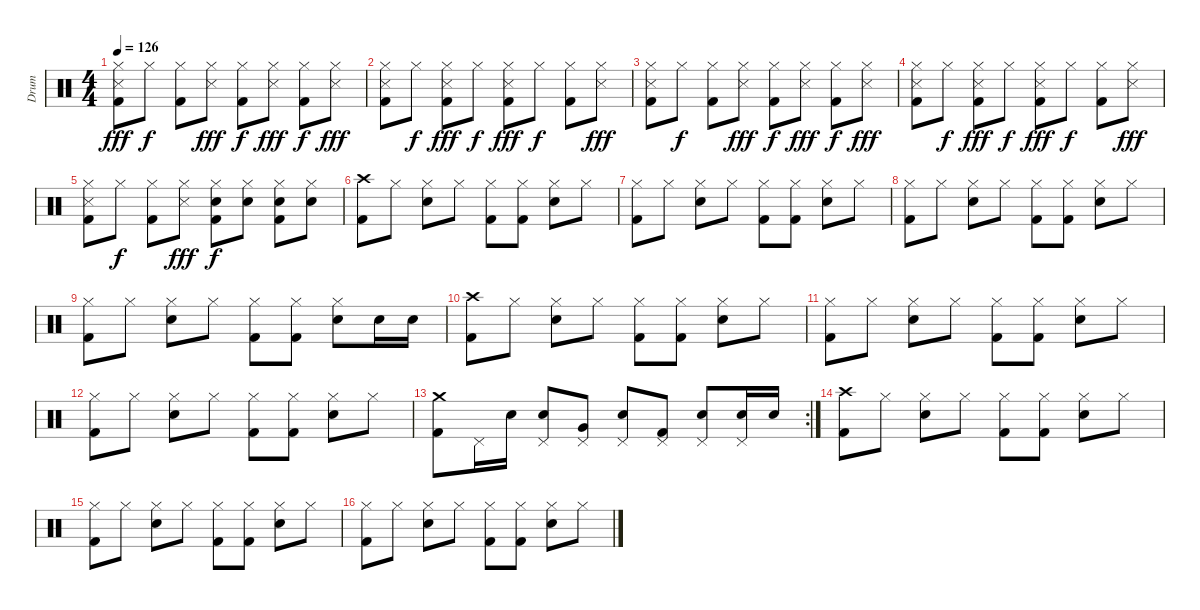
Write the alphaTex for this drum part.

\track ("Drum" "Drum") {instrument percussion}
\staff {score}
\articulation defaults
\ts (4 4)
\tempo 126
\clef neutral
\ks c
("Snare (side stick) 3" "Hi-Hat (closed)" "Kick (hit) 2").8{dy fff} "Hi-Hat (closed)".8{dy f} ("Hi-Hat (closed)" "Kick (hit) 2").8 ("Snare (side stick) 3" "Hi-Hat (closed)").8{dy fff} ("Hi-Hat (closed)" "Kick (hit) 2").8{dy f} ("Snare (side stick) 3" "Hi-Hat (closed)").8{dy fff} ("Hi-Hat (closed)" "Kick (hit) 2").8{dy f} ("Snare (side stick) 3" "Hi-Hat (closed)").8{dy fff} |
("Snare (side stick) 3" "Hi-Hat (closed)" "Kick (hit) 2").8 "Hi-Hat (closed)".8{dy f} ("Snare (side stick) 3" "Hi-Hat (closed)" "Kick (hit) 2").8{dy fff} "Hi-Hat (closed)".8{dy f} ("Snare (side stick) 3" "Hi-Hat (closed)" "Kick (hit) 2").8{dy fff} "Hi-Hat (closed)".8{dy f} ("Hi-Hat (closed)" "Kick (hit) 2").8 ("Snare (side stick) 3" "Hi-Hat (closed)").8{dy fff} |
("Snare (side stick) 3" "Hi-Hat (closed)" "Kick (hit) 2").8 "Hi-Hat (closed)".8{dy f} ("Hi-Hat (closed)" "Kick (hit) 2").8 ("Snare (side stick) 3" "Hi-Hat (closed)").8{dy fff} ("Hi-Hat (closed)" "Kick (hit) 2").8{dy f} ("Snare (side stick) 3" "Hi-Hat (closed)").8{dy fff} ("Hi-Hat (closed)" "Kick (hit) 2").8{dy f} ("Snare (side stick) 3" "Hi-Hat (closed)").8{dy fff} |
("Snare (side stick) 3" "Hi-Hat (closed)" "Kick (hit) 2").8 "Hi-Hat (closed)".8{dy f} ("Snare (side stick) 3" "Hi-Hat (closed)" "Kick (hit) 2").8{dy fff} "Hi-Hat (closed)".8{dy f} ("Snare (side stick) 3" "Hi-Hat (closed)" "Kick (hit) 2").8{dy fff} "Hi-Hat (closed)".8{dy f} ("Hi-Hat (closed)" "Kick (hit) 2").8 ("Snare (side stick) 3" "Hi-Hat (closed)").8{dy fff} |
("Snare (side stick) 3" "Hi-Hat (closed)" "Kick (hit) 2").8 "Hi-Hat (closed)".8{dy f} ("Hi-Hat (closed)" "Kick (hit) 2").8 ("Snare (side stick) 3" "Hi-Hat (closed)").8{dy fff} ("Electric Snare (hit)" "Hi-Hat (closed)" "Kick (hit) 2").8{dy f} ("Electric Snare (hit)" "Hi-Hat (closed)").8 ("Electric Snare (hit)" "Hi-Hat (closed)" "Kick (hit) 2").8 ("Electric Snare (hit)" "Hi-Hat (closed)").8 |
("Crash high (hit)" "Kick (hit) 2").8 "Hi-Hat (closed)".8 ("Electric Snare (hit)" "Hi-Hat (closed)").8 "Hi-Hat (closed)".8 ("Hi-Hat (closed)" "Kick (hit) 2").8 ("Hi-Hat (closed)" "Kick (hit) 2").8 ("Electric Snare (hit)" "Hi-Hat (closed)").8 "Hi-Hat (closed)".8 |
("Hi-Hat (closed)" "Kick (hit) 2").8 "Hi-Hat (closed)".8 ("Electric Snare (hit)" "Hi-Hat (closed)").8 "Hi-Hat (closed)".8 ("Hi-Hat (closed)" "Kick (hit) 2").8 ("Hi-Hat (closed)" "Kick (hit) 2").8 ("Electric Snare (hit)" "Hi-Hat (closed)").8 "Hi-Hat (closed)".8 |
("Hi-Hat (closed)" "Kick (hit) 2").8 "Hi-Hat (closed)".8 ("Electric Snare (hit)" "Hi-Hat (closed)").8 "Hi-Hat (closed)".8 ("Hi-Hat (closed)" "Kick (hit) 2").8 ("Hi-Hat (closed)" "Kick (hit) 2").8 ("Electric Snare (hit)" "Hi-Hat (closed)").8 "Hi-Hat (closed)".8 |
("Hi-Hat (closed)" "Kick (hit) 2").8 "Hi-Hat (closed)".8 ("Electric Snare (hit)" "Hi-Hat (closed)").8 "Hi-Hat (closed)".8 ("Hi-Hat (closed)" "Kick (hit) 2").8 ("Hi-Hat (closed)" "Kick (hit) 2").8 ("Electric Snare (hit)" "Hi-Hat (closed)").8 "Electric Snare (hit)".16 "Electric Snare (hit)".16 |
("Crash high (hit)" "Kick (hit) 2").8 "Hi-Hat (closed)".8 ("Electric Snare (hit)" "Hi-Hat (closed)").8 "Hi-Hat (closed)".8 ("Hi-Hat (closed)" "Kick (hit) 2").8 ("Hi-Hat (closed)" "Kick (hit) 2").8 ("Electric Snare (hit)" "Hi-Hat (closed)").8 "Hi-Hat (closed)".8 |
("Hi-Hat (closed)" "Kick (hit) 2").8 "Hi-Hat (closed)".8 ("Electric Snare (hit)" "Hi-Hat (closed)").8 "Hi-Hat (closed)".8 ("Hi-Hat (closed)" "Kick (hit) 2").8 ("Hi-Hat (closed)" "Kick (hit) 2").8 ("Electric Snare (hit)" "Hi-Hat (closed)").8 "Hi-Hat (closed)".8 |
("Hi-Hat (closed)" "Kick (hit) 2").8 "Hi-Hat (closed)".8 ("Electric Snare (hit)" "Hi-Hat (closed)").8 "Hi-Hat (closed)".8 ("Hi-Hat (closed)" "Kick (hit) 2").8 ("Hi-Hat (closed)" "Kick (hit) 2").8 ("Electric Snare (hit)" "Hi-Hat (closed)").8 "Hi-Hat (closed)".8 |
\rc 2
("Crash medium (hit)" "Kick (hit) 2").8 "Pedal Hi-Hat (hit)".16 "Electric Snare (hit)".16 ("Electric Snare (hit)" "Pedal Hi-Hat (hit)").8 ("Pedal Hi-Hat (hit)" "Very Low Tom (hit)").8 ("Electric Snare (hit)" "Pedal Hi-Hat (hit)").8 ("Pedal Hi-Hat (hit)" "Kick (hit) 2").8 ("Electric Snare (hit)" "Pedal Hi-Hat (hit)").8 ("Electric Snare (hit)" "Pedal Hi-Hat (hit)").16 "Electric Snare (hit)".16 |
("Crash high (hit)" "Kick (hit) 2").8 "Hi-Hat (closed)".8 ("Electric Snare (hit)" "Hi-Hat (closed)").8 "Hi-Hat (closed)".8 ("Hi-Hat (closed)" "Kick (hit) 2").8 ("Hi-Hat (closed)" "Kick (hit) 2").8 ("Electric Snare (hit)" "Hi-Hat (closed)").8 "Hi-Hat (closed)".8 |
("Hi-Hat (closed)" "Kick (hit) 2").8 "Hi-Hat (closed)".8 ("Electric Snare (hit)" "Hi-Hat (closed)").8 "Hi-Hat (closed)".8 ("Hi-Hat (closed)" "Kick (hit) 2").8 ("Hi-Hat (closed)" "Kick (hit) 2").8 ("Electric Snare (hit)" "Hi-Hat (closed)").8 "Hi-Hat (closed)".8 |
("Hi-Hat (closed)" "Kick (hit) 2").8 "Hi-Hat (closed)".8 ("Electric Snare (hit)" "Hi-Hat (closed)").8 "Hi-Hat (closed)".8 ("Hi-Hat (closed)" "Kick (hit) 2").8 ("Hi-Hat (closed)" "Kick (hit) 2").8 ("Electric Snare (hit)" "Hi-Hat (closed)").8 "Hi-Hat (closed)".8
